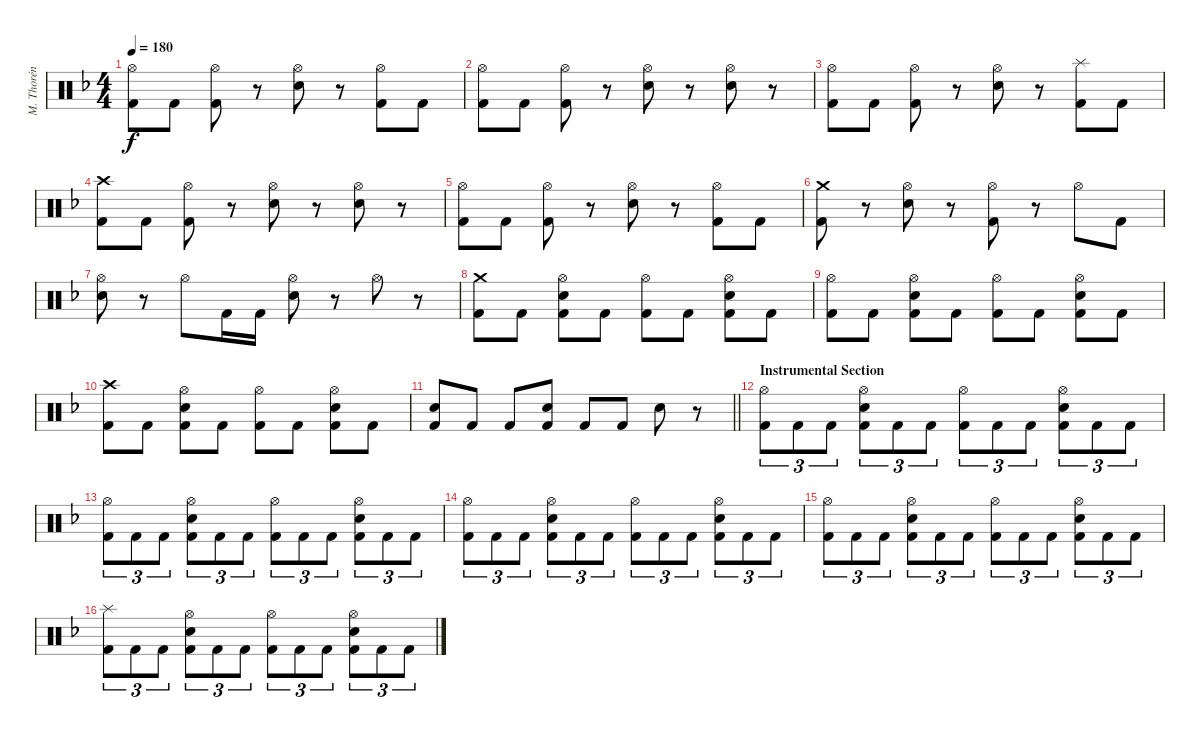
\track ("M. Thorén (Drums)" "M. Thorén ") {instrument percussion}
\staff {score}
\articulation defaults
\ts (4 4)
\tempo 180
\clef neutral
\ks dminor
("Hi-Hat (open)" "Kick (hit) 2").8{dy f} "Kick (hit) 2".8 ("Hi-Hat (open)" "Kick (hit) 2").8 r.8 ("Hi-Hat (open)" "Electric Snare (hit)").8 r.8 ("Hi-Hat (open)" "Kick (hit) 2").8 "Kick (hit) 2".8 |
("Hi-Hat (open)" "Kick (hit) 2").8 "Kick (hit) 2".8 ("Hi-Hat (open)" "Kick (hit) 2").8 r.8 ("Hi-Hat (open)" "Electric Snare (hit)").8 r.8 ("Hi-Hat (open)" "Electric Snare (hit)").8 r.8 |
("Hi-Hat (open)" "Kick (hit) 2").8 "Kick (hit) 2".8 ("Hi-Hat (open)" "Kick (hit) 2").8 r.8 ("Hi-Hat (open)" "Electric Snare (hit)").8 r.8 ("Splash (hit)" "Kick (hit) 2").8 "Kick (hit) 2".8 |
("Crash high (hit)" "Kick (hit) 2").8 "Kick (hit) 2".8 ("Hi-Hat (open)" "Kick (hit) 2").8 r.8 ("Hi-Hat (open)" "Electric Snare (hit)").8 r.8 ("Hi-Hat (open)" "Electric Snare (hit)").8 r.8 |
("Hi-Hat (open)" "Kick (hit) 2").8 "Kick (hit) 2".8 ("Hi-Hat (open)" "Kick (hit) 2").8 r.8 ("Hi-Hat (open)" "Electric Snare (hit)").8 r.8 ("Hi-Hat (open)" "Kick (hit) 2").8 "Kick (hit) 2".8 |
("Crash medium (hit)" "Kick (hit) 2").8 r.8 ("Hi-Hat (open)" "Electric Snare (hit)").8 r.8 ("Hi-Hat (open)" "Kick (hit) 2").8 r.8 "Hi-Hat (open)".8 "Kick (hit) 2".8 |
("Hi-Hat (open)" "Electric Snare (hit)").8 r.8 "Hi-Hat (open)".8 "Kick (hit) 2".16 "Kick (hit) 2".16 ("Hi-Hat (open)" "Electric Snare (hit)").8 r.8 "Hi-Hat (open)".8 r.8 |
("Crash medium (hit)" "Kick (hit) 2").8 "Kick (hit) 2".8 ("Hi-Hat (open)" "Electric Snare (hit)" "Kick (hit) 2").8 "Kick (hit) 2".8 ("Hi-Hat (open)" "Kick (hit) 2").8 "Kick (hit) 2".8 ("Hi-Hat (open)" "Electric Snare (hit)" "Kick (hit) 2").8 "Kick (hit) 2".8 |
("Hi-Hat (open)" "Kick (hit) 2").8 "Kick (hit) 2".8 ("Hi-Hat (open)" "Electric Snare (hit)" "Kick (hit) 2").8 "Kick (hit) 2".8 ("Hi-Hat (open)" "Kick (hit) 2").8 "Kick (hit) 2".8 ("Hi-Hat (open)" "Electric Snare (hit)" "Kick (hit) 2").8 "Kick (hit) 2".8 |
("Crash high (hit)" "Kick (hit) 2").8 "Kick (hit) 2".8 ("Hi-Hat (open)" "Electric Snare (hit)" "Kick (hit) 2").8 "Kick (hit) 2".8 ("Hi-Hat (open)" "Kick (hit) 2").8 "Kick (hit) 2".8 ("Hi-Hat (open)" "Electric Snare (hit)" "Kick (hit) 2").8 "Kick (hit) 2".8 |
\barLineRight lightlight
("Electric Snare (hit)" "Kick (hit) 2").8 "Kick (hit) 2".8 "Kick (hit) 2".8 ("Electric Snare (hit)" "Kick (hit) 2").8 "Kick (hit) 2".8 "Kick (hit) 2".8 "Electric Snare (hit)".8 r.8 |
\section ("" "Instrumental Section")
("Hi-Hat (open)" "Kick (hit) 2").8{tu (3 2)} "Kick (hit) 2".8{tu (3 2)} "Kick (hit) 2".8{tu (3 2)} ("Hi-Hat (open)" "Electric Snare (hit)" "Kick (hit) 2").8{tu (3 2)} "Kick (hit) 2".8{tu (3 2)} "Kick (hit) 2".8{tu (3 2)} ("Hi-Hat (open)" "Kick (hit) 2").8{tu (3 2)} "Kick (hit) 2".8{tu (3 2)} "Kick (hit) 2".8{tu (3 2)} ("Hi-Hat (open)" "Electric Snare (hit)" "Kick (hit) 2").8{tu (3 2)} "Kick (hit) 2".8{tu (3 2)} "Kick (hit) 2".8{tu (3 2)} |
("Hi-Hat (open)" "Kick (hit) 2").8{tu (3 2)} "Kick (hit) 2".8{tu (3 2)} "Kick (hit) 2".8{tu (3 2)} ("Hi-Hat (open)" "Electric Snare (hit)" "Kick (hit) 2").8{tu (3 2)} "Kick (hit) 2".8{tu (3 2)} "Kick (hit) 2".8{tu (3 2)} ("Hi-Hat (open)" "Kick (hit) 2").8{tu (3 2)} "Kick (hit) 2".8{tu (3 2)} "Kick (hit) 2".8{tu (3 2)} ("Hi-Hat (open)" "Electric Snare (hit)" "Kick (hit) 2").8{tu (3 2)} "Kick (hit) 2".8{tu (3 2)} "Kick (hit) 2".8{tu (3 2)} |
("Hi-Hat (open)" "Kick (hit) 2").8{tu (3 2)} "Kick (hit) 2".8{tu (3 2)} "Kick (hit) 2".8{tu (3 2)} ("Hi-Hat (open)" "Electric Snare (hit)" "Kick (hit) 2").8{tu (3 2)} "Kick (hit) 2".8{tu (3 2)} "Kick (hit) 2".8{tu (3 2)} ("Hi-Hat (open)" "Kick (hit) 2").8{tu (3 2)} "Kick (hit) 2".8{tu (3 2)} "Kick (hit) 2".8{tu (3 2)} ("Hi-Hat (open)" "Electric Snare (hit)" "Kick (hit) 2").8{tu (3 2)} "Kick (hit) 2".8{tu (3 2)} "Kick (hit) 2".8{tu (3 2)} |
("Hi-Hat (open)" "Kick (hit) 2").8{tu (3 2)} "Kick (hit) 2".8{tu (3 2)} "Kick (hit) 2".8{tu (3 2)} ("Hi-Hat (open)" "Electric Snare (hit)" "Kick (hit) 2").8{tu (3 2)} "Kick (hit) 2".8{tu (3 2)} "Kick (hit) 2".8{tu (3 2)} ("Hi-Hat (open)" "Kick (hit) 2").8{tu (3 2)} "Kick (hit) 2".8{tu (3 2)} "Kick (hit) 2".8{tu (3 2)} ("Hi-Hat (open)" "Electric Snare (hit)" "Kick (hit) 2").8{tu (3 2)} "Kick (hit) 2".8{tu (3 2)} "Kick (hit) 2".8{tu (3 2)} |
("Splash (hit)" "Kick (hit) 2").8{tu (3 2)} "Kick (hit) 2".8{tu (3 2)} "Kick (hit) 2".8{tu (3 2)} ("Hi-Hat (open)" "Electric Snare (hit)" "Kick (hit) 2").8{tu (3 2)} "Kick (hit) 2".8{tu (3 2)} "Kick (hit) 2".8{tu (3 2)} ("Hi-Hat (open)" "Kick (hit) 2").8{tu (3 2)} "Kick (hit) 2".8{tu (3 2)} "Kick (hit) 2".8{tu (3 2)} ("Hi-Hat (open)" "Electric Snare (hit)" "Kick (hit) 2").8{tu (3 2)} "Kick (hit) 2".8{tu (3 2)} "Kick (hit) 2".8{tu (3 2)}
